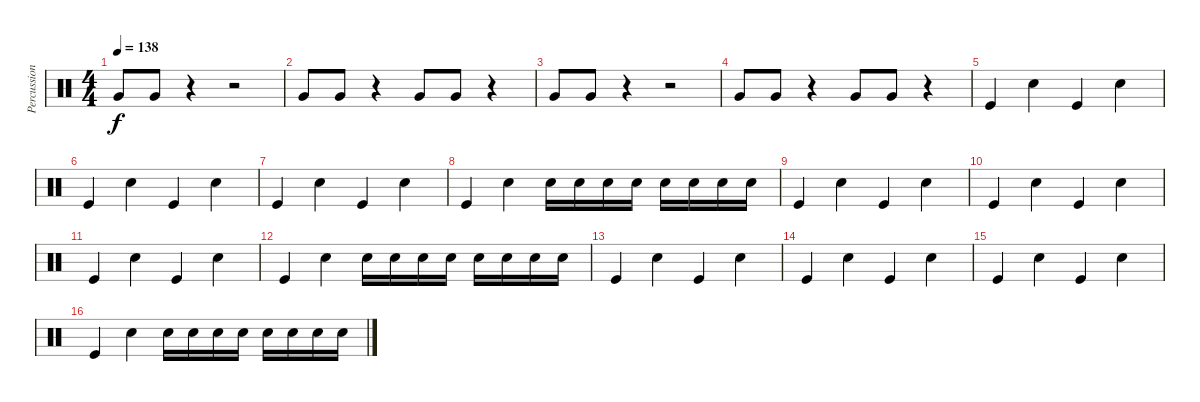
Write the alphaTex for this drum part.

\track ("Percussion" "Percussion") {instrument percussion}
\staff {score}
\articulation defaults
\ts (4 4)
\tempo 138
\clef neutral
\ks c "Very Low Tom (hit)".8{dy f} "Very Low Tom (hit)".8
r.4 r.2 |
"Very Low Tom (hit)".8 "Very Low Tom (hit)".8 r.4 "Very Low Tom (hit)".8 "Very Low Tom (hit)".8 r.4 |
"Very Low Tom (hit)".8 "Very Low Tom (hit)".8 r.4 r.2 |
"Very Low Tom (hit)".8 "Very Low Tom (hit)".8 r.4 "Very Low Tom (hit)".8 "Very Low Tom (hit)".8 r.4 |
"Kick (hit)".4 "Snare (hit) 2".4 "Kick (hit)".4 "Snare (hit) 2".4 |
"Kick (hit)".4 "Snare (hit) 2".4 "Kick (hit)".4 "Snare (hit) 2".4 |
"Kick (hit)".4 "Snare (hit) 2".4 "Kick (hit)".4 "Snare (hit) 2".4 |
"Kick (hit)".4 "Snare (hit) 2".4 "Snare (hit) 2".16 "Snare (hit) 2".16 "Snare (hit) 2".16 "Snare (hit) 2".16 "Snare (hit) 2".16 "Snare (hit) 2".16 "Snare (hit) 2".16 "Snare (hit) 2".16 |
"Kick (hit)".4 "Snare (hit) 2".4 "Kick (hit)".4 "Snare (hit) 2".4 |
"Kick (hit)".4 "Snare (hit) 2".4 "Kick (hit)".4 "Snare (hit) 2".4 |
"Kick (hit)".4 "Snare (hit) 2".4 "Kick (hit)".4 "Snare (hit) 2".4 |
"Kick (hit)".4 "Snare (hit) 2".4 "Snare (hit) 2".16 "Snare (hit) 2".16 "Snare (hit) 2".16 "Snare (hit) 2".16 "Snare (hit) 2".16 "Snare (hit) 2".16 "Snare (hit) 2".16 "Snare (hit) 2".16 |
"Kick (hit)".4 "Snare (hit) 2".4 "Kick (hit)".4 "Snare (hit) 2".4 |
"Kick (hit)".4 "Snare (hit) 2".4 "Kick (hit)".4 "Snare (hit) 2".4 |
"Kick (hit)".4 "Snare (hit) 2".4 "Kick (hit)".4 "Snare (hit) 2".4 |
"Kick (hit)".4 "Snare (hit) 2".4 "Snare (hit) 2".16 "Snare (hit) 2".16 "Snare (hit) 2".16 "Snare (hit) 2".16 "Snare (hit) 2".16 "Snare (hit) 2".16 "Snare (hit) 2".16 "Snare (hit) 2".16
